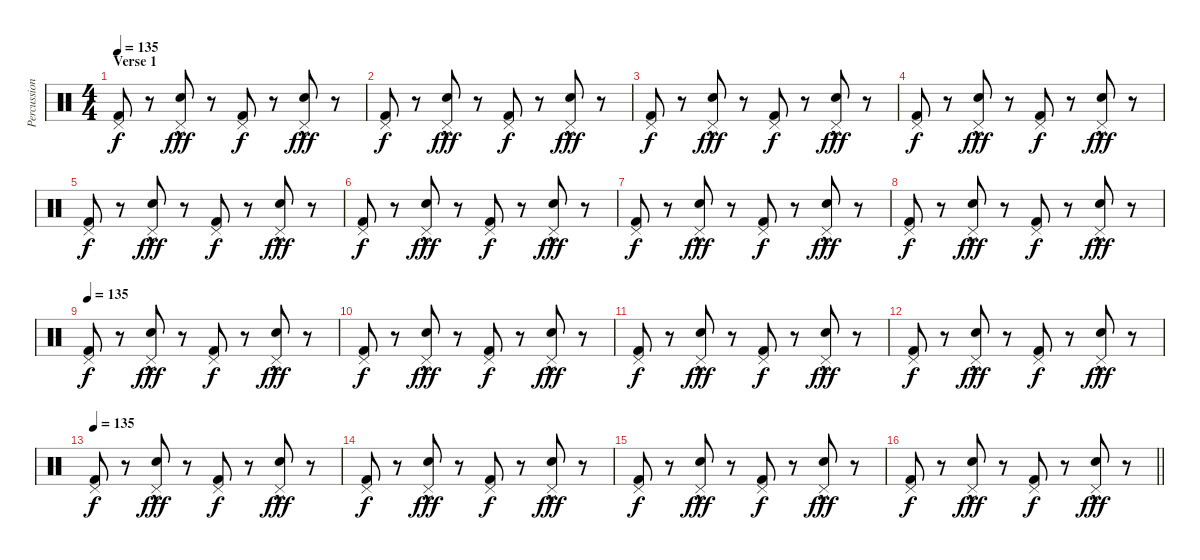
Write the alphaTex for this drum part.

\track ("Percussion" "Percussion") {instrument percussion}
\staff {score}
\articulation defaults
\ts (4 4)
\section ("" "Verse 1")
\tempo 135
\clef neutral
\ks c
("Kick (hit) 2" "Pedal Hi-Hat (hit)").8{dy f} r.8 ("Snare (hit) 2"{hac} "Pedal Hi-Hat (hit)").8{dy fff} r.8 ("Kick (hit) 2" "Pedal Hi-Hat (hit)").8{dy f} r.8 ("Snare (hit) 2"{hac} "Pedal Hi-Hat (hit)").8{dy fff} r.8 |
("Kick (hit) 2" "Pedal Hi-Hat (hit)").8{dy f} r.8 ("Snare (hit) 2"{hac} "Pedal Hi-Hat (hit)").8{dy fff} r.8 ("Kick (hit) 2" "Pedal Hi-Hat (hit)").8{dy f} r.8 ("Snare (hit) 2"{hac} "Pedal Hi-Hat (hit)").8{dy fff} r.8 |
("Kick (hit) 2" "Pedal Hi-Hat (hit)").8{dy f} r.8 ("Snare (hit) 2"{hac} "Pedal Hi-Hat (hit)").8{dy fff} r.8 ("Kick (hit) 2" "Pedal Hi-Hat (hit)").8{dy f} r.8 ("Snare (hit) 2"{hac} "Pedal Hi-Hat (hit)").8{dy fff} r.8 |
("Kick (hit) 2" "Pedal Hi-Hat (hit)").8{dy f} r.8 ("Snare (hit) 2"{hac} "Pedal Hi-Hat (hit)").8{dy fff} r.8 ("Kick (hit) 2" "Pedal Hi-Hat (hit)").8{dy f} r.8 ("Snare (hit) 2"{hac} "Pedal Hi-Hat (hit)").8{dy fff} r.8 |
("Kick (hit) 2" "Pedal Hi-Hat (hit)").8{dy f} r.8 ("Snare (hit) 2"{hac} "Pedal Hi-Hat (hit)").8{dy fff} r.8 ("Kick (hit) 2" "Pedal Hi-Hat (hit)").8{dy f} r.8 ("Snare (hit) 2"{hac} "Pedal Hi-Hat (hit)").8{dy fff} r.8 |
("Kick (hit) 2" "Pedal Hi-Hat (hit)").8{dy f} r.8 ("Snare (hit) 2"{hac} "Pedal Hi-Hat (hit)").8{dy fff} r.8 ("Kick (hit) 2" "Pedal Hi-Hat (hit)").8{dy f} r.8 ("Snare (hit) 2"{hac} "Pedal Hi-Hat (hit)").8{dy fff} r.8 |
("Kick (hit) 2" "Pedal Hi-Hat (hit)").8{dy f} r.8 ("Snare (hit) 2"{hac} "Pedal Hi-Hat (hit)").8{dy fff} r.8 ("Kick (hit) 2" "Pedal Hi-Hat (hit)").8{dy f} r.8 ("Snare (hit) 2"{hac} "Pedal Hi-Hat (hit)").8{dy fff} r.8 |
("Kick (hit) 2" "Pedal Hi-Hat (hit)").8{dy f} r.8 ("Snare (hit) 2"{hac} "Pedal Hi-Hat (hit)").8{dy fff} r.8 ("Kick (hit) 2" "Pedal Hi-Hat (hit)").8{dy f} r.8 ("Snare (hit) 2"{hac} "Pedal Hi-Hat (hit)").8{dy fff} r.8 |
\tempo 135
("Kick (hit) 2" "Pedal Hi-Hat (hit)").8{dy f} r.8 ("Snare (hit) 2"{hac} "Pedal Hi-Hat (hit)").8{dy fff} r.8 ("Kick (hit) 2" "Pedal Hi-Hat (hit)").8{dy f} r.8 ("Snare (hit) 2"{hac} "Pedal Hi-Hat (hit)").8{dy fff} r.8 |
("Kick (hit) 2" "Pedal Hi-Hat (hit)").8{dy f} r.8 ("Snare (hit) 2"{hac} "Pedal Hi-Hat (hit)").8{dy fff} r.8 ("Kick (hit) 2" "Pedal Hi-Hat (hit)").8{dy f} r.8 ("Snare (hit) 2"{hac} "Pedal Hi-Hat (hit)").8{dy fff} r.8 |
("Kick (hit) 2" "Pedal Hi-Hat (hit)").8{dy f} r.8 ("Snare (hit) 2"{hac} "Pedal Hi-Hat (hit)").8{dy fff} r.8 ("Kick (hit) 2" "Pedal Hi-Hat (hit)").8{dy f} r.8 ("Snare (hit) 2"{hac} "Pedal Hi-Hat (hit)").8{dy fff} r.8 |
("Kick (hit) 2" "Pedal Hi-Hat (hit)").8{dy f} r.8 ("Snare (hit) 2"{hac} "Pedal Hi-Hat (hit)").8{dy fff} r.8 ("Kick (hit) 2" "Pedal Hi-Hat (hit)").8{dy f} r.8 ("Snare (hit) 2"{hac} "Pedal Hi-Hat (hit)").8{dy fff} r.8 |
\tempo 135
("Kick (hit) 2" "Pedal Hi-Hat (hit)").8{dy f} r.8 ("Snare (hit) 2"{hac} "Pedal Hi-Hat (hit)").8{dy fff} r.8 ("Kick (hit) 2" "Pedal Hi-Hat (hit)").8{dy f} r.8 ("Snare (hit) 2"{hac} "Pedal Hi-Hat (hit)").8{dy fff} r.8 |
("Kick (hit) 2" "Pedal Hi-Hat (hit)").8{dy f} r.8 ("Snare (hit) 2"{hac} "Pedal Hi-Hat (hit)").8{dy fff} r.8 ("Kick (hit) 2" "Pedal Hi-Hat (hit)").8{dy f} r.8 ("Snare (hit) 2"{hac} "Pedal Hi-Hat (hit)").8{dy fff} r.8 |
("Kick (hit) 2" "Pedal Hi-Hat (hit)").8{dy f} r.8 ("Snare (hit) 2"{hac} "Pedal Hi-Hat (hit)").8{dy fff} r.8 ("Kick (hit) 2" "Pedal Hi-Hat (hit)").8{dy f} r.8 ("Snare (hit) 2"{hac} "Pedal Hi-Hat (hit)").8{dy fff} r.8 |
\barLineRight lightlight
("Kick (hit) 2" "Pedal Hi-Hat (hit)").8{dy f} r.8 ("Snare (hit) 2"{hac} "Pedal Hi-Hat (hit)").8{dy fff} r.8 ("Kick (hit) 2" "Pedal Hi-Hat (hit)").8{dy f} r.8 ("Snare (hit) 2"{hac} "Pedal Hi-Hat (hit)").8{dy fff} r.8
